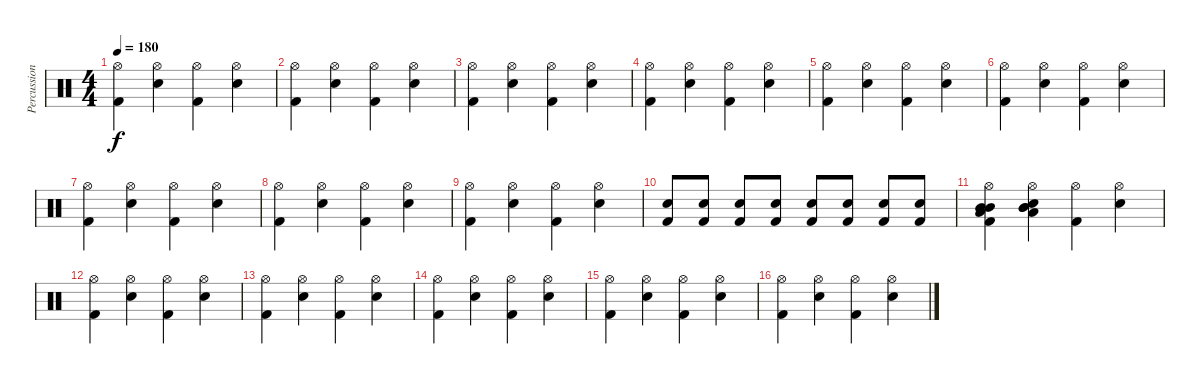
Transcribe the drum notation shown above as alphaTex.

\track ("Percussion" "Percussion") {instrument percussion}
\staff {score}
\articulation defaults
\ts (4 4)
\tempo 180
\clef neutral
\ks c
("Hi-Hat (open)" "Kick (hit) 2").4{dy f} ("Hi-Hat (open)" "Electric Snare (hit)").4 ("Hi-Hat (open)" "Kick (hit) 2").4 ("Hi-Hat (open)" "Electric Snare (hit)").4 |
("Hi-Hat (open)" "Kick (hit) 2").4 ("Hi-Hat (open)" "Electric Snare (hit)").4 ("Hi-Hat (open)" "Kick (hit) 2").4 ("Hi-Hat (open)" "Electric Snare (hit)").4 |
("Hi-Hat (open)" "Kick (hit) 2").4 ("Hi-Hat (open)" "Electric Snare (hit)").4 ("Hi-Hat (open)" "Kick (hit) 2").4 ("Hi-Hat (open)" "Electric Snare (hit)").4 |
("Hi-Hat (open)" "Kick (hit) 2").4 ("Hi-Hat (open)" "Electric Snare (hit)").4 ("Hi-Hat (open)" "Kick (hit) 2").4 ("Hi-Hat (open)" "Electric Snare (hit)").4 |
("Hi-Hat (open)" "Kick (hit) 2").4 ("Hi-Hat (open)" "Electric Snare (hit)").4 ("Hi-Hat (open)" "Kick (hit) 2").4 ("Hi-Hat (open)" "Electric Snare (hit)").4 |
("Hi-Hat (open)" "Kick (hit) 2").4 ("Hi-Hat (open)" "Electric Snare (hit)").4 ("Hi-Hat (open)" "Kick (hit) 2").4 ("Hi-Hat (open)" "Electric Snare (hit)").4 |
("Hi-Hat (open)" "Kick (hit) 2").4 ("Hi-Hat (open)" "Electric Snare (hit)").4 ("Hi-Hat (open)" "Kick (hit) 2").4 ("Hi-Hat (open)" "Electric Snare (hit)").4 |
("Hi-Hat (open)" "Kick (hit) 2").4 ("Hi-Hat (open)" "Electric Snare (hit)").4 ("Hi-Hat (open)" "Kick (hit) 2").4 ("Hi-Hat (open)" "Electric Snare (hit)").4 |
("Hi-Hat (open)" "Kick (hit) 2").4 ("Hi-Hat (open)" "Electric Snare (hit)").4 ("Hi-Hat (open)" "Kick (hit) 2").4 ("Hi-Hat (open)" "Electric Snare (hit)").4 |
("Electric Snare (hit)" "Kick (hit) 2").8 ("Electric Snare (hit)" "Kick (hit) 2").8 ("Electric Snare (hit)" "Kick (hit) 2").8 ("Electric Snare (hit)" "Kick (hit) 2").8 ("Electric Snare (hit)" "Kick (hit) 2").8 ("Electric Snare (hit)" "Kick (hit) 2").8 ("Electric Snare (hit)" "Kick (hit) 2").8 ("Electric Snare (hit)" "Kick (hit) 2").8 |
("Low Tom (hit)" "Mid Tom (hit)" "Mid Tom (hit)" "Hi-Hat (open)" "Kick (hit) 2").4 ("Low Tom (hit)" "Mid Tom (hit)" "Mid Tom (hit)" "Hi-Hat (open)" "Electric Snare (hit)").4 ("Hi-Hat (open)" "Kick (hit) 2").4 ("Hi-Hat (open)" "Electric Snare (hit)").4 |
("Hi-Hat (open)" "Kick (hit) 2").4 ("Hi-Hat (open)" "Electric Snare (hit)").4 ("Hi-Hat (open)" "Kick (hit) 2").4 ("Hi-Hat (open)" "Electric Snare (hit)").4 |
("Hi-Hat (open)" "Kick (hit) 2").4 ("Hi-Hat (open)" "Electric Snare (hit)").4 ("Hi-Hat (open)" "Kick (hit) 2").4 ("Hi-Hat (open)" "Electric Snare (hit)").4 |
("Hi-Hat (open)" "Kick (hit) 2").4 ("Hi-Hat (open)" "Electric Snare (hit)").4 ("Hi-Hat (open)" "Kick (hit) 2").4 ("Hi-Hat (open)" "Electric Snare (hit)").4 |
("Hi-Hat (open)" "Kick (hit) 2").4 ("Hi-Hat (open)" "Electric Snare (hit)").4 ("Hi-Hat (open)" "Kick (hit) 2").4 ("Hi-Hat (open)" "Electric Snare (hit)").4 |
("Hi-Hat (open)" "Kick (hit) 2").4 ("Hi-Hat (open)" "Electric Snare (hit)").4 ("Hi-Hat (open)" "Kick (hit) 2").4 ("Hi-Hat (open)" "Electric Snare (hit)").4
